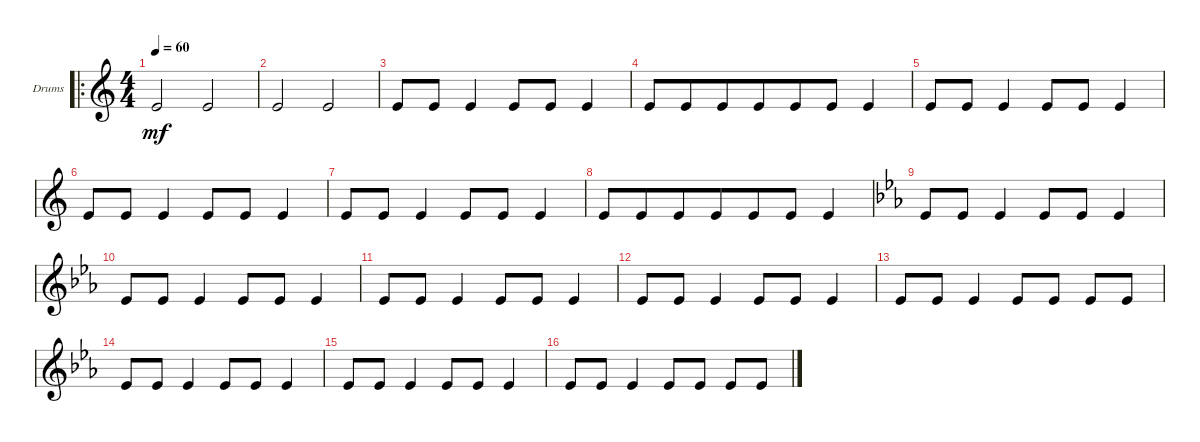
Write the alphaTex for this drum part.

\defaultSystemsLayout 4
\bracketExtendMode groupsimilarinstruments
\firstSystemTrackNameOrientation horizontal
\otherSystemsTrackNameOrientation horizontal
\track ("Drumkit" "Drums") {mute instrument percussion}
\staff {score}
\articulation defaults
\ro
\ts (4 4)
\tempo 60
\clef g2
\scale
0.502222
\ks c "Kick (hit)".2{dy mf beam merge} "Kick (hit)".2{beam merge}
|
\scale
0.248889 "Kick (hit)".2{beam merge} "Kick (hit)".2{beam merge} |
\scale
0.248889 "Kick (hit)".8{beam merge} "Kick (hit)".8{beam merge} "Kick (hit)".4{beam merge} "Kick (hit)".8{beam merge} "Kick (hit)".8{beam merge} "Kick (hit)".4{beam merge} |
\scale
0.333333 "Kick (hit)".8{beam merge} "Kick (hit)".8{beam merge} "Kick (hit)".8{beam merge} "Kick (hit)".8{beam merge} "Kick (hit)".8{beam merge} "Kick (hit)".8{beam merge} "Kick (hit)".4{beam merge} |
\scale
0.333333 "Kick (hit)".8{beam merge} "Kick (hit)".8{beam merge} "Kick (hit)".4{beam merge} "Kick (hit)".8{beam merge} "Kick (hit)".8{beam merge} "Kick (hit)".4{beam merge} |
\scale
0.333333 "Kick (hit)".8{beam merge} "Kick (hit)".8{beam merge} "Kick (hit)".4{beam merge} "Kick (hit)".8{beam merge} "Kick (hit)".8{beam merge} "Kick (hit)".4{beam merge} |
\scale
0.259259 "Kick (hit)".8{beam merge} "Kick (hit)".8{beam merge} "Kick (hit)".4{beam merge} "Kick (hit)".8{beam merge} "Kick (hit)".8{beam merge} "Kick (hit)".4{beam merge} |
\scale
0.259259 "Kick (hit)".8{beam merge} "Kick (hit)".8{beam merge} "Kick (hit)".8{beam merge} "Kick (hit)".8{beam merge} "Kick (hit)".8{beam merge} "Kick (hit)".8{beam merge} "Kick (hit)".4 |
\scale
0.481481
\ks eb "Kick (hit)".8 "Kick (hit)".8 "Kick (hit)".4 "Kick (hit)".8 "Kick (hit)".8 "Kick (hit)".4
|
\scale
0.333333 "Kick (hit)".8 "Kick (hit)".8 "Kick (hit)".4 "Kick (hit)".8 "Kick (hit)".8 "Kick (hit)".4 |
\scale
0.333333 "Kick (hit)".8 "Kick (hit)".8 "Kick (hit)".4 "Kick (hit)".8 "Kick (hit)".8 "Kick (hit)".4 |
\scale
0.333333 "Kick (hit)".8 "Kick (hit)".8 "Kick (hit)".4 "Kick (hit)".8 "Kick (hit)".8 "Kick (hit)".4 |
\scale
0.333333 "Kick (hit)".8 "Kick (hit)".8 "Kick (hit)".4 "Kick (hit)".8 "Kick (hit)".8 "Kick (hit)".8 "Kick (hit)".8 |
\scale
0.333333 "Kick (hit)".8 "Kick (hit)".8 "Kick (hit)".4 "Kick (hit)".8 "Kick (hit)".8 "Kick (hit)".4 |
\scale
0.333333 "Kick (hit)".8 "Kick (hit)".8 "Kick (hit)".4 "Kick (hit)".8 "Kick (hit)".8 "Kick (hit)".4 |
\scale
0.258065 "Kick (hit)".8 "Kick (hit)".8 "Kick (hit)".4 "Kick (hit)".8 "Kick (hit)".8 "Kick (hit)".8 "Kick (hit)".8
